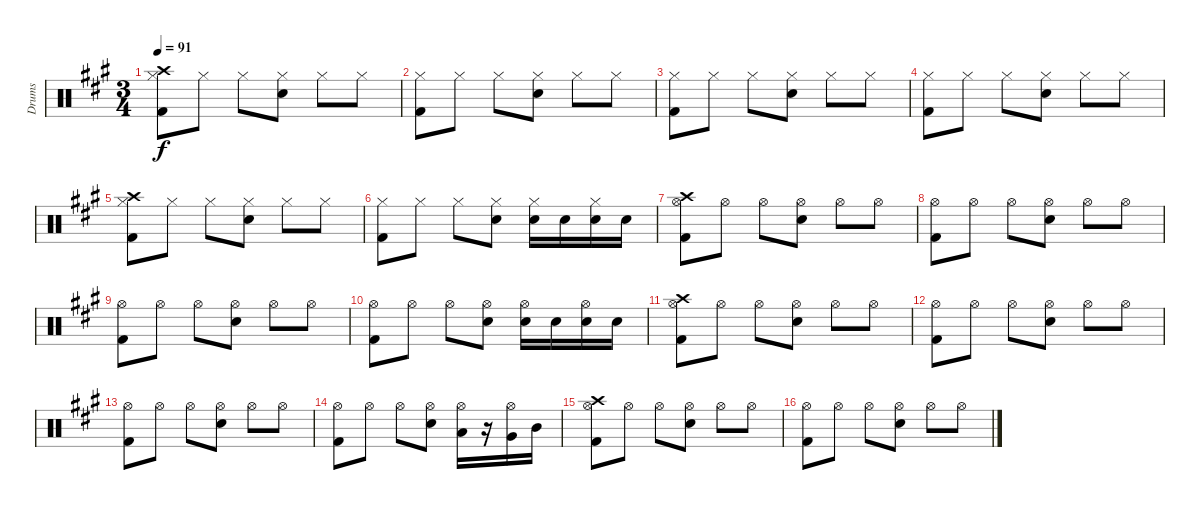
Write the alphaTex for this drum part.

\track ("Drums" "Drums") {instrument percussion}
\staff {score}
\articulation defaults
\ts (3 4)
\tempo 91
\clef neutral
\ks a
("Hi-Hat (closed)" "Kick (hit) 2" "Crash high (hit)").8{dy f} "Hi-Hat (closed)".8 "Hi-Hat (closed)".8 ("Hi-Hat (closed)" "Snare (hit) 2").8 "Hi-Hat (closed)".8 "Hi-Hat (closed)".8 |
("Hi-Hat (closed)" "Kick (hit) 2").8 "Hi-Hat (closed)".8 "Hi-Hat (closed)".8 ("Hi-Hat (closed)" "Snare (hit) 2").8 "Hi-Hat (closed)".8 "Hi-Hat (closed)".8 |
("Hi-Hat (closed)" "Kick (hit) 2").8 "Hi-Hat (closed)".8 "Hi-Hat (closed)".8 ("Hi-Hat (closed)" "Snare (hit) 2").8 "Hi-Hat (closed)".8 "Hi-Hat (closed)".8 |
("Hi-Hat (closed)" "Kick (hit) 2").8 "Hi-Hat (closed)".8 "Hi-Hat (closed)".8 ("Hi-Hat (closed)" "Snare (hit) 2").8 "Hi-Hat (closed)".8 "Hi-Hat (closed)".8 |
("Hi-Hat (closed)" "Kick (hit) 2" "Crash high (hit)").8 "Hi-Hat (closed)".8 "Hi-Hat (closed)".8 ("Hi-Hat (closed)" "Snare (hit) 2").8 "Hi-Hat (closed)".8 "Hi-Hat (closed)".8 |
("Hi-Hat (closed)" "Kick (hit) 2").8 "Hi-Hat (closed)".8 "Hi-Hat (closed)".8 ("Hi-Hat (closed)" "Snare (hit) 2").8 ("Hi-Hat (closed)" "Snare (hit) 2").16 "Snare (hit) 2".16 ("Hi-Hat (closed)" "Snare (hit) 2").16 "Snare (hit) 2".16 |
("Hi-Hat (open)" "Kick (hit) 2" "Crash high (hit)").8 "Hi-Hat (open)".8 "Hi-Hat (open)".8 ("Hi-Hat (open)" "Snare (hit) 2").8 "Hi-Hat (open)".8 "Hi-Hat (open)".8 |
("Hi-Hat (open)" "Kick (hit) 2").8 "Hi-Hat (open)".8 "Hi-Hat (open)".8 ("Hi-Hat (open)" "Snare (hit) 2").8 "Hi-Hat (open)".8 "Hi-Hat (open)".8 |
("Hi-Hat (open)" "Kick (hit) 2").8 "Hi-Hat (open)".8 "Hi-Hat (open)".8 ("Hi-Hat (open)" "Snare (hit) 2").8 "Hi-Hat (open)".8 "Hi-Hat (open)".8 |
("Hi-Hat (open)" "Kick (hit) 2").8 "Hi-Hat (open)".8 "Hi-Hat (open)".8 ("Hi-Hat (open)" "Snare (hit) 2").8 ("Hi-Hat (open)" "Snare (hit) 2").16 "Snare (hit) 2".16 ("Hi-Hat (open)" "Snare (hit) 2").16 "Snare (hit) 2".16 |
("Hi-Hat (open)" "Kick (hit) 2" "Crash high (hit)").8 "Hi-Hat (open)".8 "Hi-Hat (open)".8 ("Hi-Hat (open)" "Snare (hit) 2").8 "Hi-Hat (open)".8 "Hi-Hat (open)".8 |
("Hi-Hat (open)" "Kick (hit) 2").8 "Hi-Hat (open)".8 "Hi-Hat (open)".8 ("Hi-Hat (open)" "Snare (hit) 2").8 "Hi-Hat (open)".8 "Hi-Hat (open)".8 |
("Hi-Hat (open)" "Kick (hit) 2").8 "Hi-Hat (open)".8 "Hi-Hat (open)".8 ("Hi-Hat (open)" "Snare (hit) 2").8 "Hi-Hat (open)".8 "Hi-Hat (open)".8 |
("Hi-Hat (open)" "Kick (hit) 2").8 "Hi-Hat (open)".8 "Hi-Hat (open)".8 ("Hi-Hat (open)" "Snare (hit) 2").8 ("Hi-Hat (open)" "Low Floor Tom (hit)").16 r.16 ("Hi-Hat (open)" "Very Low Tom (hit)").16 "Mid Tom (hit)".16 |
("Hi-Hat (open)" "Kick (hit) 2" "Crash high (hit)").8 "Hi-Hat (open)".8 "Hi-Hat (open)".8 ("Hi-Hat (open)" "Snare (hit) 2").8 "Hi-Hat (open)".8 "Hi-Hat (open)".8 |
("Hi-Hat (open)" "Kick (hit) 2").8 "Hi-Hat (open)".8 "Hi-Hat (open)".8 ("Hi-Hat (open)" "Snare (hit) 2").8 "Hi-Hat (open)".8 "Hi-Hat (open)".8
